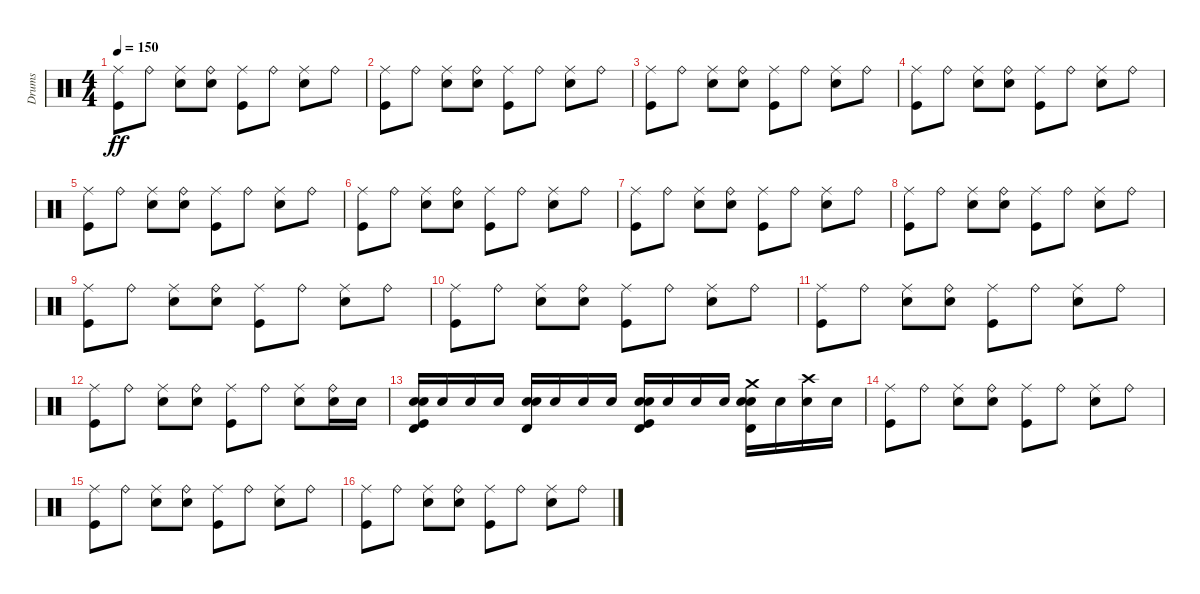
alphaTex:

\track ("Drums" "Drums") {instrument percussion}
\staff {score}
\articulation defaults
\ts (4 4)
\tempo 150
\clef neutral
\ks c
("Kick (hit)" "Ride (middle)").8{dy ff} "Ride (bell)".8 ("Snare (hit) 2" "Ride (middle)").8 ("Snare (hit) 2" "Ride (bell)").8 ("Kick (hit)" "Ride (middle)").8 "Ride (bell)".8 ("Snare (hit) 2" "Ride (middle)").8 "Ride (bell)".8 |
("Kick (hit)" "Ride (middle)").8 "Ride (bell)".8 ("Snare (hit) 2" "Ride (middle)").8 ("Snare (hit) 2" "Ride (bell)").8 ("Kick (hit)" "Ride (middle)").8 "Ride (bell)".8 ("Snare (hit) 2" "Ride (middle)").8 "Ride (bell)".8 |
("Kick (hit)" "Ride (middle)").8 "Ride (bell)".8 ("Snare (hit) 2" "Ride (middle)").8 ("Snare (hit) 2" "Ride (bell)").8 ("Kick (hit)" "Ride (middle)").8 "Ride (bell)".8 ("Snare (hit) 2" "Ride (middle)").8 "Ride (bell)".8 |
("Kick (hit)" "Ride (middle)").8 "Ride (bell)".8 ("Snare (hit) 2" "Ride (middle)").8 ("Snare (hit) 2" "Ride (bell)").8 ("Kick (hit)" "Ride (middle)").8 "Ride (bell)".8 ("Snare (hit) 2" "Ride (middle)").8 "Ride (bell)".8 |
("Kick (hit)" "Ride (middle)").8 "Ride (bell)".8 ("Snare (hit) 2" "Ride (middle)").8 ("Snare (hit) 2" "Ride (bell)").8 ("Kick (hit)" "Ride (middle)").8 "Ride (bell)".8 ("Snare (hit) 2" "Ride (middle)").8 "Ride (bell)".8 |
("Kick (hit)" "Ride (middle)").8 "Ride (bell)".8 ("Snare (hit) 2" "Ride (middle)").8 ("Snare (hit) 2" "Ride (bell)").8 ("Kick (hit)" "Ride (middle)").8 "Ride (bell)".8 ("Snare (hit) 2" "Ride (middle)").8 "Ride (bell)".8 |
("Kick (hit)" "Ride (middle)").8 "Ride (bell)".8 ("Snare (hit) 2" "Ride (middle)").8 ("Snare (hit) 2" "Ride (bell)").8 ("Kick (hit)" "Ride (middle)").8 "Ride (bell)".8 ("Snare (hit) 2" "Ride (middle)").8 "Ride (bell)".8 |
("Kick (hit)" "Ride (middle)").8 "Ride (bell)".8 ("Snare (hit) 2" "Ride (middle)").8 ("Snare (hit) 2" "Ride (bell)").8 ("Kick (hit)" "Ride (middle)").8 "Ride (bell)".8 ("Snare (hit) 2" "Ride (middle)").8 "Ride (bell)".8 |
("Kick (hit)" "Ride (middle)").8 "Ride (bell)".8 ("Snare (hit) 2" "Ride (middle)").8 ("Snare (hit) 2" "Ride (bell)").8 ("Kick (hit)" "Ride (middle)").8 "Ride (bell)".8 ("Snare (hit) 2" "Ride (middle)").8 "Ride (bell)".8 |
("Kick (hit)" "Ride (middle)").8 "Ride (bell)".8 ("Snare (hit) 2" "Ride (middle)").8 ("Snare (hit) 2" "Ride (bell)").8 ("Kick (hit)" "Ride (middle)").8 "Ride (bell)".8 ("Snare (hit) 2" "Ride (middle)").8 "Ride (bell)".8 |
("Kick (hit)" "Ride (middle)").8 "Ride (bell)".8 ("Snare (hit) 2" "Ride (middle)").8 ("Snare (hit) 2" "Ride (bell)").8 ("Kick (hit)" "Ride (middle)").8 "Ride (bell)".8 ("Snare (hit) 2" "Ride (middle)").8 "Ride (bell)".8 |
("Kick (hit)" "Ride (middle)").8 "Ride (bell)".8 ("Snare (hit) 2" "Ride (middle)").8 ("Snare (hit) 2" "Ride (bell)").8 ("Kick (hit)" "Ride (middle)").8 "Ride (bell)".8 ("Snare (hit) 2" "Ride (middle)").8 ("Electric Snare (hit)" "Ride (bell)").16 "Electric Snare (hit)".16 |
("Kick (hit)" "Snare (hit) 2" "Electric Snare (hit)" "Timbale high (hit)").16 "Electric Snare (hit)".16 "Electric Snare (hit)".16 "Electric Snare (hit)".16 ("Snare (hit) 2" "Electric Snare (hit)" "Timbale high (hit)").16 "Electric Snare (hit)".16 "Electric Snare (hit)".16 "Electric Snare (hit)".16 ("Kick (hit)" "Snare (hit) 2" "Electric Snare (hit)" "Timbale high (hit)").16 "Electric Snare (hit)".16 "Electric Snare (hit)".16 "Electric Snare (hit)".16 ("Snare (hit) 2" "Electric Snare (hit)" "Crash medium (hit)" "Timbale high (hit)").16 "Electric Snare (hit)".16 ("Electric Snare (hit)" "Crash high (hit)").16 "Electric Snare (hit)".16 |
("Kick (hit)" "Ride (middle)").8 "Ride (bell)".8 ("Snare (hit) 2" "Ride (middle)").8 ("Snare (hit) 2" "Ride (bell)").8 ("Kick (hit)" "Ride (middle)").8 "Ride (bell)".8 ("Snare (hit) 2" "Ride (middle)").8 "Ride (bell)".8 |
("Kick (hit)" "Ride (middle)").8 "Ride (bell)".8 ("Snare (hit) 2" "Ride (middle)").8 ("Snare (hit) 2" "Ride (bell)").8 ("Kick (hit)" "Ride (middle)").8 "Ride (bell)".8 ("Snare (hit) 2" "Ride (middle)").8 "Ride (bell)".8 |
("Kick (hit)" "Ride (middle)").8 "Ride (bell)".8 ("Snare (hit) 2" "Ride (middle)").8 ("Snare (hit) 2" "Ride (bell)").8 ("Kick (hit)" "Ride (middle)").8 "Ride (bell)".8 ("Snare (hit) 2" "Ride (middle)").8 "Ride (bell)".8
